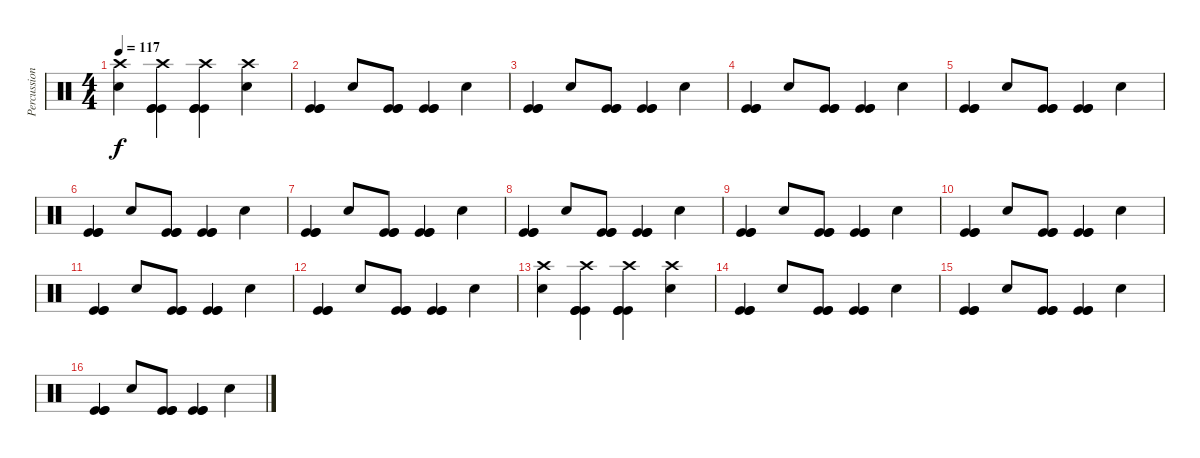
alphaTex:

\track ("Percussion" "Percussion") {instrument percussion}
\staff {score}
\articulation defaults
\ts (4 4)
\tempo 117
\clef neutral
\ks c
("Electric Snare (hit)" "Crash high (hit)").4{dy f} ("Kick (hit)" "Kick (hit)" "Kick (hit)" "Crash high (hit)").4 ("Kick (hit)" "Kick (hit)" "Kick (hit)" "Crash high (hit)").4 ("Electric Snare (hit)" "Crash high (hit)").4 |
("Kick (hit)" "Kick (hit)" "Kick (hit)").4 "Electric Snare (hit)".8 ("Kick (hit)" "Kick (hit)" "Kick (hit)").8 ("Kick (hit)" "Kick (hit)" "Kick (hit)").4 "Electric Snare (hit)".4 |
("Kick (hit)" "Kick (hit)" "Kick (hit)").4 "Electric Snare (hit)".8 ("Kick (hit)" "Kick (hit)" "Kick (hit)").8 ("Kick (hit)" "Kick (hit)" "Kick (hit)").4 "Electric Snare (hit)".4 |
("Kick (hit)" "Kick (hit)" "Kick (hit)").4 "Electric Snare (hit)".8 ("Kick (hit)" "Kick (hit)" "Kick (hit)").8 ("Kick (hit)" "Kick (hit)" "Kick (hit)").4 "Electric Snare (hit)".4 |
("Kick (hit)" "Kick (hit)" "Kick (hit)").4 "Electric Snare (hit)".8 ("Kick (hit)" "Kick (hit)" "Kick (hit)").8 ("Kick (hit)" "Kick (hit)" "Kick (hit)").4 "Electric Snare (hit)".4 |
("Kick (hit)" "Kick (hit)" "Kick (hit)").4 "Electric Snare (hit)".8 ("Kick (hit)" "Kick (hit)" "Kick (hit)").8 ("Kick (hit)" "Kick (hit)" "Kick (hit)").4 "Electric Snare (hit)".4 |
("Kick (hit)" "Kick (hit)" "Kick (hit)").4 "Electric Snare (hit)".8 ("Kick (hit)" "Kick (hit)" "Kick (hit)").8 ("Kick (hit)" "Kick (hit)" "Kick (hit)").4 "Electric Snare (hit)".4 |
("Kick (hit)" "Kick (hit)" "Kick (hit)").4 "Electric Snare (hit)".8 ("Kick (hit)" "Kick (hit)" "Kick (hit)").8 ("Kick (hit)" "Kick (hit)" "Kick (hit)").4 "Electric Snare (hit)".4 |
("Kick (hit)" "Kick (hit)" "Kick (hit)").4 "Electric Snare (hit)".8 ("Kick (hit)" "Kick (hit)" "Kick (hit)").8 ("Kick (hit)" "Kick (hit)" "Kick (hit)").4 "Electric Snare (hit)".4 |
("Kick (hit)" "Kick (hit)" "Kick (hit)").4 "Electric Snare (hit)".8 ("Kick (hit)" "Kick (hit)" "Kick (hit)").8 ("Kick (hit)" "Kick (hit)" "Kick (hit)").4 "Electric Snare (hit)".4 |
("Kick (hit)" "Kick (hit)" "Kick (hit)").4 "Electric Snare (hit)".8 ("Kick (hit)" "Kick (hit)" "Kick (hit)").8 ("Kick (hit)" "Kick (hit)" "Kick (hit)").4 "Electric Snare (hit)".4 |
("Kick (hit)" "Kick (hit)" "Kick (hit)").4 "Electric Snare (hit)".8 ("Kick (hit)" "Kick (hit)" "Kick (hit)").8 ("Kick (hit)" "Kick (hit)" "Kick (hit)").4 "Electric Snare (hit)".4 |
("Electric Snare (hit)" "Crash high (hit)").4 ("Kick (hit)" "Kick (hit)" "Kick (hit)" "Crash high (hit)").4 ("Kick (hit)" "Kick (hit)" "Kick (hit)" "Crash high (hit)").4 ("Electric Snare (hit)" "Crash high (hit)").4 |
("Kick (hit)" "Kick (hit)" "Kick (hit)").4 "Electric Snare (hit)".8 ("Kick (hit)" "Kick (hit)" "Kick (hit)").8 ("Kick (hit)" "Kick (hit)" "Kick (hit)").4 "Electric Snare (hit)".4 |
("Kick (hit)" "Kick (hit)" "Kick (hit)").4 "Electric Snare (hit)".8 ("Kick (hit)" "Kick (hit)" "Kick (hit)").8 ("Kick (hit)" "Kick (hit)" "Kick (hit)").4 "Electric Snare (hit)".4 |
("Kick (hit)" "Kick (hit)" "Kick (hit)").4 "Electric Snare (hit)".8 ("Kick (hit)" "Kick (hit)" "Kick (hit)").8 ("Kick (hit)" "Kick (hit)" "Kick (hit)").4 "Electric Snare (hit)".4
